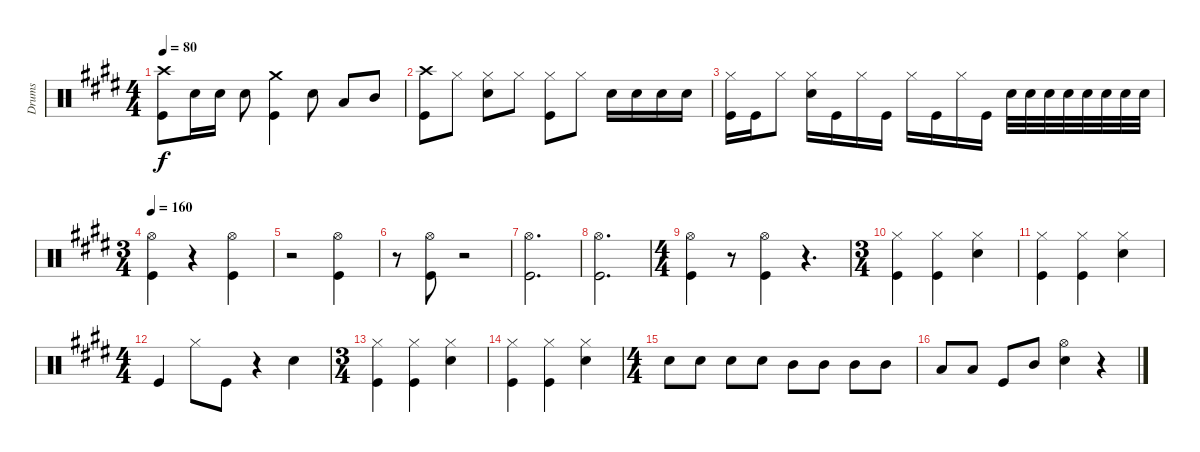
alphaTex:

\track ("Drums" "Drums") {instrument percussion}
\staff {score}
\articulation defaults
\ts (4 4)
\tempo 80
\clef neutral
\ks e
("Crash high (hit)" "Kick (hit)").8{dy f} "Snare (hit) 2".16 "Snare (hit) 2".16 "Snare (hit) 2".8 ("Crash medium (hit)" "Kick (hit)").4 "Snare (hit) 2".8 "Low Tom (hit)".8 "Mid Tom (hit)".8 |
("Crash high (hit)" "Kick (hit)").8 "Hi-Hat (closed)".8 ("Hi-Hat (closed)" "Snare (hit) 2").8 "Hi-Hat (closed)".8 ("Hi-Hat (closed)" "Kick (hit)").8 "Hi-Hat (closed)".8 "Snare (hit) 2".16 "Snare (hit) 2".16 "Snare (hit) 2".16 "Snare (hit) 2".16 |
("Hi-Hat (closed)" "Kick (hit)").16 "Kick (hit)".16 "Hi-Hat (closed)".8 ("Hi-Hat (closed)" "Snare (hit) 2").16 "Kick (hit)".16 "Hi-Hat (closed)".16 "Kick (hit)".16 "Hi-Hat (closed)".16 "Kick (hit)".16 "Hi-Hat (closed)".16 "Kick (hit)".16 "Snare (hit) 2".32 "Snare (hit) 2".32 "Snare (hit) 2".32 "Snare (hit) 2".32 "Snare (hit) 2".32 "Snare (hit) 2".32 "Snare (hit) 2".32 "Snare (hit) 2".32 |
\ts (3 4)
\tempo 165
\tempo 160
("Hi-Hat (open)" "Kick (hit)").4 r.4 ("Hi-Hat (open)" "Kick (hit)").4 |
r.2 ("Hi-Hat (open)" "Kick (hit)").4 |
r.8 ("Hi-Hat (open)" "Kick (hit)").8 r.2 |
("Hi-Hat (open)" "Kick (hit)").2{d} |
("Hi-Hat (open)" "Kick (hit)").2{d} |
\ts (4 4)
("Hi-Hat (open)" "Kick (hit)").4 r.8 ("Hi-Hat (open)" "Kick (hit)").4 r.4{d} |
\ts (3 4)
("Hi-Hat (closed)" "Kick (hit)").4 ("Hi-Hat (closed)" "Kick (hit)").4 ("Hi-Hat (closed)" "Snare (hit) 2").4 |
("Hi-Hat (closed)" "Kick (hit)").4 ("Hi-Hat (closed)" "Kick (hit)").4 ("Hi-Hat (closed)" "Snare (hit) 2").4 |
\ts (4 4)
"Kick (hit)".4 "Hi-Hat (closed)".8 "Kick (hit)".8 r.4 "Snare (hit) 2".4 |
\ts (3 4)
("Hi-Hat (closed)" "Kick (hit)").4 ("Hi-Hat (closed)" "Kick (hit)").4 ("Hi-Hat (closed)" "Snare (hit) 2").4 |
("Hi-Hat (closed)" "Kick (hit)").4 ("Hi-Hat (closed)" "Kick (hit)").4 ("Hi-Hat (closed)" "Snare (hit) 2").4 |
\ts (4 4)
"Snare (hit) 2".8 "Snare (hit) 2".8 "Snare (hit) 2".8 "Snare (hit) 2".8 "Mid Tom (hit)".8 "Mid Tom (hit)".8 "Mid Tom (hit)".8 "Mid Tom (hit)".8 |
"Low Tom (hit)".8 "Low Tom (hit)".8 "Kick (hit)".8 "Mid Tom (hit)".8 ("Hi-Hat (open)" "Snare (hit) 2").4 r.4
